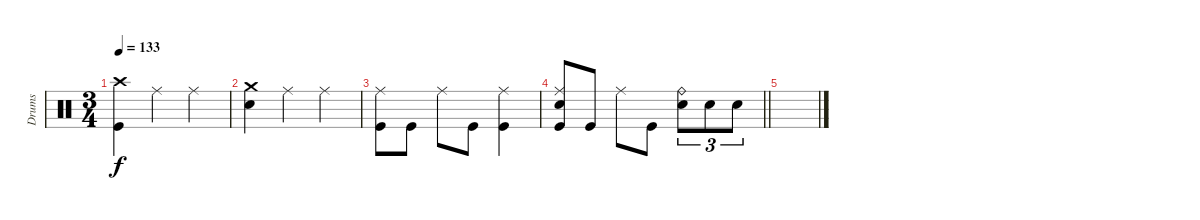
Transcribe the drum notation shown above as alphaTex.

\track ("Drums" "Drums") {instrument percussion}
\staff
\articulation defaults
\ts (3 4)
\tempo 133
\clef neutral
\ks c
("Crash high (hit)" "Kick (hit)").4{dy f} "Ride (middle)".4 "Ride (middle)".4 |
("Crash medium (hit)" "Electric Snare (hit)").4 "Ride (middle)".4 "Ride (middle)".4 |
("Ride (middle)" "Kick (hit)").8 "Kick (hit)".8 "Ride (middle)".8 "Kick (hit)".8 ("Ride (middle)" "Kick (hit)").4 |
\barLineRight lightlight
("Ride (middle)" "Electric Snare (hit)" "Kick (hit)").8 "Kick (hit)".8 "Ride (middle)".8 "Kick (hit)".8 ("Ride (bell)" "Electric Snare (hit)").8{tu (3 2)} "Electric Snare (hit)".8{tu (3 2)} "Electric Snare (hit)".8{tu (3 2)} |
\section ("" "")
